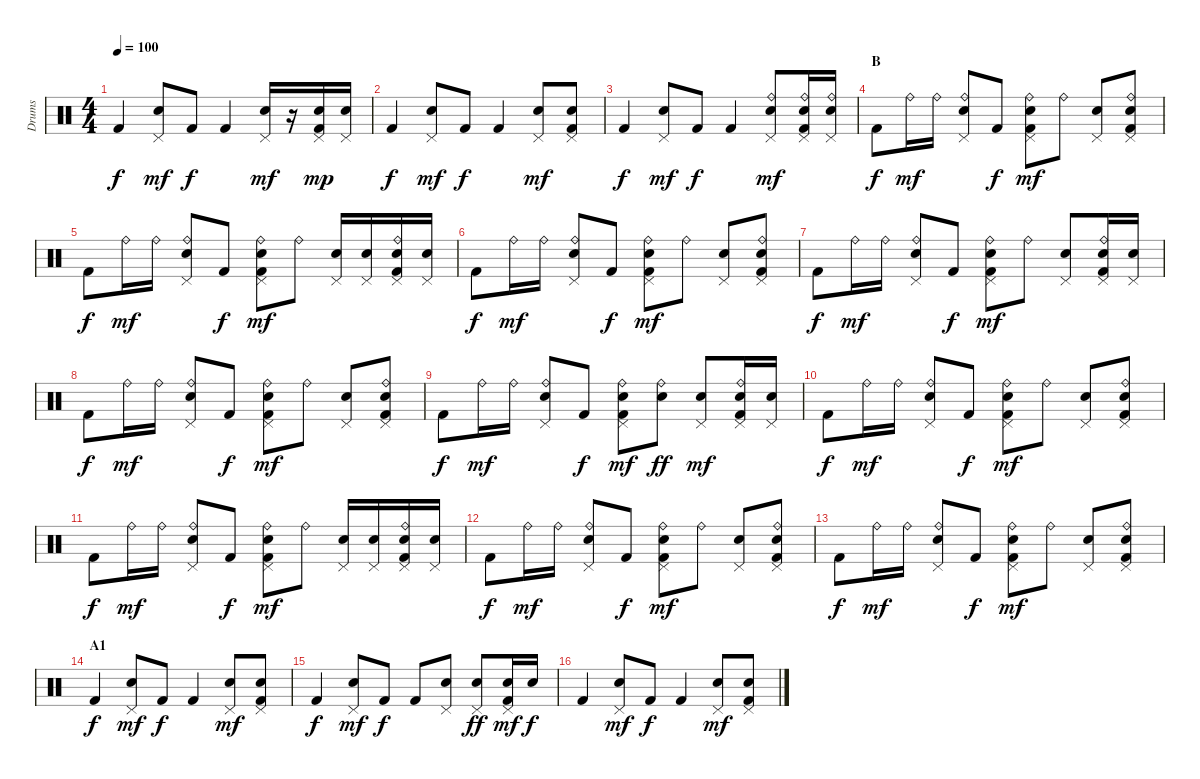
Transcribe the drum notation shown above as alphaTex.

\track ("Drums" "Drums") {instrument percussion}
\staff {score}
\articulation defaults
\ts (4 4)
\tempo 100
\clef neutral
\ks c "Kick (hit) 2".4{dy f}
("Pedal Hi-Hat (hit)" "Electric Snare (hit)").8{dy mf} "Kick (hit) 2".8{dy f} "Kick (hit) 2".4 ("Pedal Hi-Hat (hit)" "Electric Snare (hit)").16{dy mf} r.16 ("Pedal Hi-Hat (hit)" "Electric Snare (hit)" "Kick (hit) 2").16{dy mp} ("Pedal Hi-Hat (hit)" "Electric Snare (hit)").16 |
"Kick (hit) 2".4{dy f} ("Pedal Hi-Hat (hit)" "Electric Snare (hit)").8{dy mf} "Kick (hit) 2".8{dy f} "Kick (hit) 2".4 ("Pedal Hi-Hat (hit)" "Electric Snare (hit)").8{dy mf} ("Pedal Hi-Hat (hit)" "Electric Snare (hit)" "Kick (hit) 2").8 |
"Kick (hit) 2".4{dy f} ("Pedal Hi-Hat (hit)" "Electric Snare (hit)").8{dy mf} "Kick (hit) 2".8{dy f} "Kick (hit) 2".4 ("Ride (bell)" "Pedal Hi-Hat (hit)" "Electric Snare (hit)").8{dy mf} ("Ride (bell)" "Pedal Hi-Hat (hit)" "Electric Snare (hit)" "Kick (hit) 2").16 ("Ride (bell)" "Pedal Hi-Hat (hit)" "Electric Snare (hit)").16 |
\section ("" "B")
"Kick (hit) 2".8{dy f} "Ride (bell)".16{dy mf} "Ride (bell)".16 ("Ride (bell)" "Pedal Hi-Hat (hit)" "Electric Snare (hit)").8 "Kick (hit) 2".8{dy f} ("Ride (bell)" "Pedal Hi-Hat (hit)" "Electric Snare (hit)" "Kick (hit) 2").8{dy mf} "Ride (bell)".8 ("Pedal Hi-Hat (hit)" "Electric Snare (hit)").8 ("Ride (bell)" "Pedal Hi-Hat (hit)" "Electric Snare (hit)" "Kick (hit) 2").8 |
"Kick (hit) 2".8{dy f} "Ride (bell)".16{dy mf} "Ride (bell)".16 ("Ride (bell)" "Pedal Hi-Hat (hit)" "Electric Snare (hit)").8 "Kick (hit) 2".8{dy f} ("Ride (bell)" "Pedal Hi-Hat (hit)" "Electric Snare (hit)" "Kick (hit) 2").8{dy mf} "Ride (bell)".8 ("Pedal Hi-Hat (hit)" "Electric Snare (hit)").16 ("Pedal Hi-Hat (hit)" "Electric Snare (hit)").16 ("Ride (bell)" "Pedal Hi-Hat (hit)" "Electric Snare (hit)" "Kick (hit) 2").16 ("Pedal Hi-Hat (hit)" "Electric Snare (hit)").16 |
"Kick (hit) 2".8{dy f} "Ride (bell)".16{dy mf} "Ride (bell)".16 ("Ride (bell)" "Pedal Hi-Hat (hit)" "Electric Snare (hit)").8 "Kick (hit) 2".8{dy f} ("Ride (bell)" "Pedal Hi-Hat (hit)" "Electric Snare (hit)" "Kick (hit) 2").8{dy mf} "Ride (bell)".8 ("Pedal Hi-Hat (hit)" "Electric Snare (hit)").8 ("Ride (bell)" "Pedal Hi-Hat (hit)" "Electric Snare (hit)" "Kick (hit) 2").8 |
"Kick (hit) 2".8{dy f} "Ride (bell)".16{dy mf} "Ride (bell)".16 ("Ride (bell)" "Pedal Hi-Hat (hit)" "Electric Snare (hit)").8 "Kick (hit) 2".8{dy f} ("Ride (bell)" "Pedal Hi-Hat (hit)" "Electric Snare (hit)" "Kick (hit) 2").8{dy mf} "Ride (bell)".8 ("Pedal Hi-Hat (hit)" "Electric Snare (hit)").8 ("Ride (bell)" "Pedal Hi-Hat (hit)" "Electric Snare (hit)" "Kick (hit) 2").16 ("Pedal Hi-Hat (hit)" "Electric Snare (hit)").16 |
"Kick (hit) 2".8{dy f} "Ride (bell)".16{dy mf} "Ride (bell)".16 ("Ride (bell)" "Pedal Hi-Hat (hit)" "Electric Snare (hit)").8 "Kick (hit) 2".8{dy f} ("Ride (bell)" "Pedal Hi-Hat (hit)" "Electric Snare (hit)" "Kick (hit) 2").8{dy mf} "Ride (bell)".8 ("Pedal Hi-Hat (hit)" "Electric Snare (hit)").8 ("Ride (bell)" "Pedal Hi-Hat (hit)" "Electric Snare (hit)" "Kick (hit) 2").8 |
"Kick (hit) 2".8{dy f} "Ride (bell)".16{dy mf} "Ride (bell)".16 ("Ride (bell)" "Pedal Hi-Hat (hit)" "Electric Snare (hit)").8 "Kick (hit) 2".8{dy f} ("Ride (bell)" "Pedal Hi-Hat (hit)" "Electric Snare (hit)" "Kick (hit) 2").8{dy mf} ("Ride (bell)" "Electric Snare (hit)").8{dy ff} ("Pedal Hi-Hat (hit)" "Electric Snare (hit)").8{dy mf} ("Ride (bell)" "Pedal Hi-Hat (hit)" "Electric Snare (hit)" "Kick (hit) 2").16 ("Pedal Hi-Hat (hit)" "Electric Snare (hit)").16 |
"Kick (hit) 2".8{dy f} "Ride (bell)".16{dy mf} "Ride (bell)".16 ("Ride (bell)" "Pedal Hi-Hat (hit)" "Electric Snare (hit)").8 "Kick (hit) 2".8{dy f} ("Ride (bell)" "Pedal Hi-Hat (hit)" "Electric Snare (hit)" "Kick (hit) 2").8{dy mf} "Ride (bell)".8 ("Pedal Hi-Hat (hit)" "Electric Snare (hit)").8 ("Ride (bell)" "Pedal Hi-Hat (hit)" "Electric Snare (hit)" "Kick (hit) 2").8 |
"Kick (hit) 2".8{dy f} "Ride (bell)".16{dy mf} "Ride (bell)".16 ("Ride (bell)" "Pedal Hi-Hat (hit)" "Electric Snare (hit)").8 "Kick (hit) 2".8{dy f} ("Ride (bell)" "Pedal Hi-Hat (hit)" "Electric Snare (hit)" "Kick (hit) 2").8{dy mf} "Ride (bell)".8 ("Pedal Hi-Hat (hit)" "Electric Snare (hit)").16 ("Pedal Hi-Hat (hit)" "Electric Snare (hit)").16 ("Ride (bell)" "Pedal Hi-Hat (hit)" "Electric Snare (hit)" "Kick (hit) 2").16 ("Pedal Hi-Hat (hit)" "Electric Snare (hit)").16 |
"Kick (hit) 2".8{dy f} "Ride (bell)".16{dy mf} "Ride (bell)".16 ("Ride (bell)" "Pedal Hi-Hat (hit)" "Electric Snare (hit)").8 "Kick (hit) 2".8{dy f} ("Ride (bell)" "Pedal Hi-Hat (hit)" "Electric Snare (hit)" "Kick (hit) 2").8{dy mf} "Ride (bell)".8 ("Pedal Hi-Hat (hit)" "Electric Snare (hit)").8 ("Ride (bell)" "Pedal Hi-Hat (hit)" "Electric Snare (hit)" "Kick (hit) 2").8 |
"Kick (hit) 2".8{dy f} "Ride (bell)".16{dy mf} "Ride (bell)".16 ("Ride (bell)" "Pedal Hi-Hat (hit)" "Electric Snare (hit)").8 "Kick (hit) 2".8{dy f} ("Ride (bell)" "Pedal Hi-Hat (hit)" "Electric Snare (hit)" "Kick (hit) 2").8{dy mf} "Ride (bell)".8 ("Pedal Hi-Hat (hit)" "Electric Snare (hit)").8 ("Ride (bell)" "Pedal Hi-Hat (hit)" "Electric Snare (hit)" "Kick (hit) 2").8 |
\section ("" "A1")
"Kick (hit) 2".4{dy f} ("Pedal Hi-Hat (hit)" "Electric Snare (hit)").8{dy mf} "Kick (hit) 2".8{dy f} "Kick (hit) 2".4 ("Pedal Hi-Hat (hit)" "Electric Snare (hit)").8{dy mf} ("Pedal Hi-Hat (hit)" "Electric Snare (hit)" "Kick (hit) 2").8 |
"Kick (hit) 2".4{dy f} ("Pedal Hi-Hat (hit)" "Electric Snare (hit)").8{dy mf} "Kick (hit) 2".8{dy f} "Kick (hit) 2".8 ("Pedal Hi-Hat (hit)" "Electric Snare (hit)").8 ("Pedal Hi-Hat (hit)" "Electric Snare (hit)").8{dy ff} ("Pedal Hi-Hat (hit)" "Electric Snare (hit)" "Kick (hit) 2").16{dy mf} "Electric Snare (hit)".16{dy f} |
"Kick (hit) 2".4 ("Pedal Hi-Hat (hit)" "Electric Snare (hit)").8{dy mf} "Kick (hit) 2".8{dy f} "Kick (hit) 2".4 ("Pedal Hi-Hat (hit)" "Electric Snare (hit)").8{dy mf} ("Pedal Hi-Hat (hit)" "Electric Snare (hit)" "Kick (hit) 2").8
